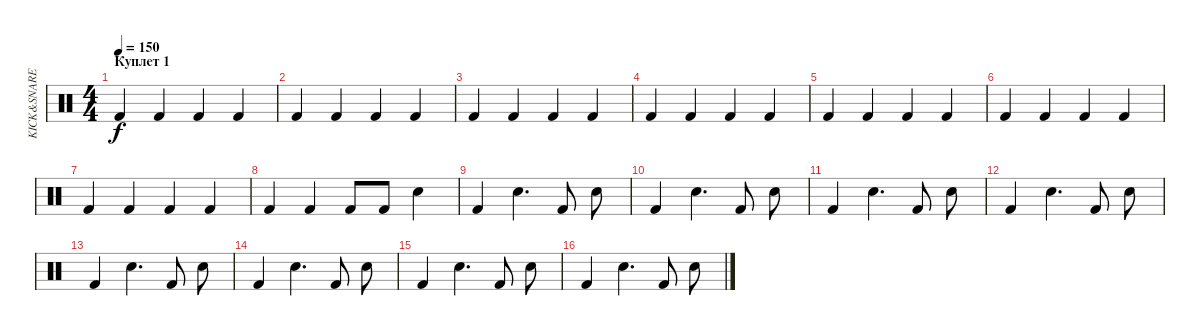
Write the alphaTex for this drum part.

\track ("KICK&SNARE" "KICK&SNARE") {instrument percussion}
\staff {score}
\articulation defaults
\ts (4 4)
\section ("" "Куплет 1")
\tempo 150
\clef neutral
\ks c "Kick (hit) 2".4{dy f} "Kick (hit) 2".4 "Kick (hit) 2".4 "Kick (hit) 2".4
|
"Kick (hit) 2".4 "Kick (hit) 2".4 "Kick (hit) 2".4 "Kick (hit) 2".4 |
"Kick (hit) 2".4 "Kick (hit) 2".4 "Kick (hit) 2".4 "Kick (hit) 2".4 |
"Kick (hit) 2".4 "Kick (hit) 2".4 "Kick (hit) 2".4 "Kick (hit) 2".4 |
"Kick (hit) 2".4 "Kick (hit) 2".4 "Kick (hit) 2".4 "Kick (hit) 2".4 |
"Kick (hit) 2".4 "Kick (hit) 2".4 "Kick (hit) 2".4 "Kick (hit) 2".4 |
"Kick (hit) 2".4 "Kick (hit) 2".4 "Kick (hit) 2".4 "Kick (hit) 2".4 |
"Kick (hit) 2".4 "Kick (hit) 2".4 "Kick (hit) 2".8 "Kick (hit) 2".8 "Snare (hit) 2".4 |
"Kick (hit) 2".4 "Snare (hit) 2".4{d} "Kick (hit) 2".8 "Snare (hit) 2".8 |
"Kick (hit) 2".4 "Snare (hit) 2".4{d} "Kick (hit) 2".8 "Snare (hit) 2".8 |
"Kick (hit) 2".4 "Snare (hit) 2".4{d} "Kick (hit) 2".8 "Snare (hit) 2".8 |
"Kick (hit) 2".4 "Snare (hit) 2".4{d} "Kick (hit) 2".8 "Snare (hit) 2".8 |
"Kick (hit) 2".4 "Snare (hit) 2".4{d} "Kick (hit) 2".8 "Snare (hit) 2".8 |
"Kick (hit) 2".4 "Snare (hit) 2".4{d} "Kick (hit) 2".8 "Snare (hit) 2".8 |
"Kick (hit) 2".4 "Snare (hit) 2".4{d} "Kick (hit) 2".8 "Snare (hit) 2".8 |
"Kick (hit) 2".4 "Snare (hit) 2".4{d} "Kick (hit) 2".8 "Snare (hit) 2".8
